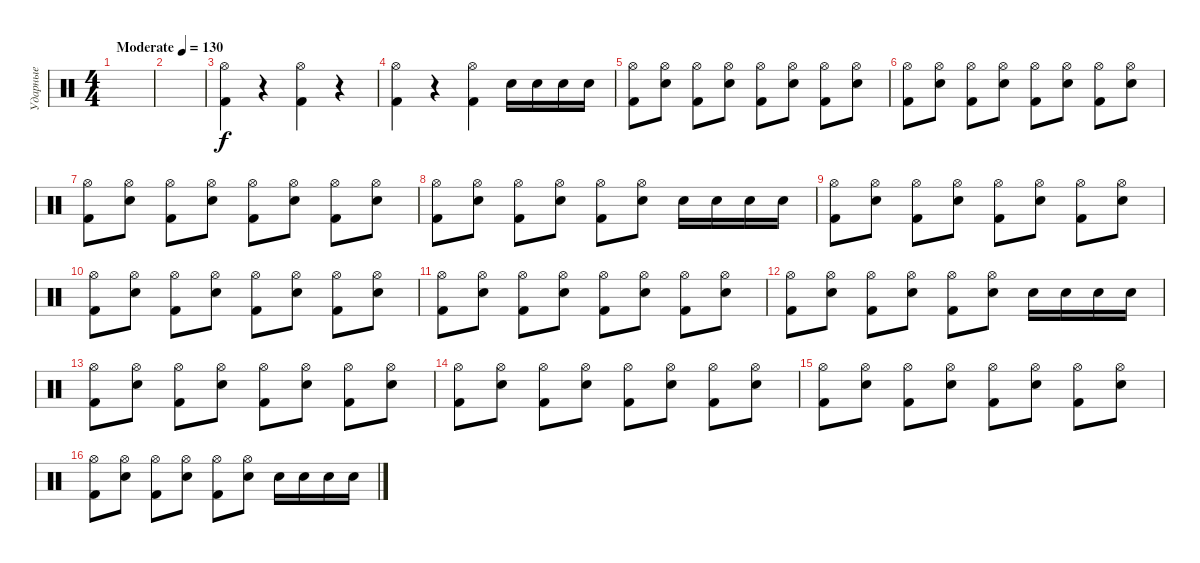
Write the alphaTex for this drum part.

\track ("Ударные" "Ударные") {instrument percussion}
\staff {score}
\articulation defaults
\ts (4 4)
\tempo (130 "Moderate")
\clef neutral
\ks c
|
|
("Hi-Hat (open)" "Kick (hit) 2").4 r.4 ("Hi-Hat (open)" "Kick (hit) 2").4 r.4 |
("Hi-Hat (open)" "Kick (hit) 2").4 r.4 ("Hi-Hat (open)" "Kick (hit) 2").4 "Electric Snare (hit)".16 "Electric Snare (hit)".16 "Electric Snare (hit)".16 "Electric Snare (hit)".16 |
("Hi-Hat (open)" "Kick (hit) 2").8 ("Hi-Hat (open)" "Electric Snare (hit)").8 ("Hi-Hat (open)" "Kick (hit) 2").8 ("Hi-Hat (open)" "Electric Snare (hit)").8 ("Hi-Hat (open)" "Kick (hit) 2").8 ("Hi-Hat (open)" "Electric Snare (hit)").8 ("Hi-Hat (open)" "Kick (hit) 2").8 ("Hi-Hat (open)" "Electric Snare (hit)").8 |
("Hi-Hat (open)" "Kick (hit) 2").8 ("Hi-Hat (open)" "Electric Snare (hit)").8 ("Hi-Hat (open)" "Kick (hit) 2").8 ("Hi-Hat (open)" "Electric Snare (hit)").8 ("Hi-Hat (open)" "Kick (hit) 2").8 ("Hi-Hat (open)" "Electric Snare (hit)").8 ("Hi-Hat (open)" "Kick (hit) 2").8 ("Hi-Hat (open)" "Electric Snare (hit)").8 |
("Hi-Hat (open)" "Kick (hit) 2").8 ("Hi-Hat (open)" "Electric Snare (hit)").8 ("Hi-Hat (open)" "Kick (hit) 2").8 ("Hi-Hat (open)" "Electric Snare (hit)").8 ("Hi-Hat (open)" "Kick (hit) 2").8 ("Hi-Hat (open)" "Electric Snare (hit)").8 ("Hi-Hat (open)" "Kick (hit) 2").8 ("Hi-Hat (open)" "Electric Snare (hit)").8 |
("Hi-Hat (open)" "Kick (hit) 2").8 ("Hi-Hat (open)" "Electric Snare (hit)").8 ("Hi-Hat (open)" "Kick (hit) 2").8 ("Hi-Hat (open)" "Electric Snare (hit)").8 ("Hi-Hat (open)" "Kick (hit) 2").8 ("Hi-Hat (open)" "Electric Snare (hit)").8 "Electric Snare (hit)".16 "Electric Snare (hit)".16 "Electric Snare (hit)".16 "Electric Snare (hit)".16 |
("Hi-Hat (open)" "Kick (hit) 2").8 ("Hi-Hat (open)" "Electric Snare (hit)").8 ("Hi-Hat (open)" "Kick (hit) 2").8 ("Hi-Hat (open)" "Electric Snare (hit)").8 ("Hi-Hat (open)" "Kick (hit) 2").8 ("Hi-Hat (open)" "Electric Snare (hit)").8 ("Hi-Hat (open)" "Kick (hit) 2").8 ("Hi-Hat (open)" "Electric Snare (hit)").8 |
("Hi-Hat (open)" "Kick (hit) 2").8 ("Hi-Hat (open)" "Electric Snare (hit)").8 ("Hi-Hat (open)" "Kick (hit) 2").8 ("Hi-Hat (open)" "Electric Snare (hit)").8 ("Hi-Hat (open)" "Kick (hit) 2").8 ("Hi-Hat (open)" "Electric Snare (hit)").8 ("Hi-Hat (open)" "Kick (hit) 2").8 ("Hi-Hat (open)" "Electric Snare (hit)").8 |
("Hi-Hat (open)" "Kick (hit) 2").8 ("Hi-Hat (open)" "Electric Snare (hit)").8 ("Hi-Hat (open)" "Kick (hit) 2").8 ("Hi-Hat (open)" "Electric Snare (hit)").8 ("Hi-Hat (open)" "Kick (hit) 2").8 ("Hi-Hat (open)" "Electric Snare (hit)").8 ("Hi-Hat (open)" "Kick (hit) 2").8 ("Hi-Hat (open)" "Electric Snare (hit)").8 |
("Hi-Hat (open)" "Kick (hit) 2").8 ("Hi-Hat (open)" "Electric Snare (hit)").8 ("Hi-Hat (open)" "Kick (hit) 2").8 ("Hi-Hat (open)" "Electric Snare (hit)").8 ("Hi-Hat (open)" "Kick (hit) 2").8 ("Hi-Hat (open)" "Electric Snare (hit)").8 "Electric Snare (hit)".16 "Electric Snare (hit)".16 "Electric Snare (hit)".16 "Electric Snare (hit)".16 |
("Hi-Hat (open)" "Kick (hit) 2").8 ("Hi-Hat (open)" "Electric Snare (hit)").8 ("Hi-Hat (open)" "Kick (hit) 2").8 ("Hi-Hat (open)" "Electric Snare (hit)").8 ("Hi-Hat (open)" "Kick (hit) 2").8 ("Hi-Hat (open)" "Electric Snare (hit)").8 ("Hi-Hat (open)" "Kick (hit) 2").8 ("Hi-Hat (open)" "Electric Snare (hit)").8 |
("Hi-Hat (open)" "Kick (hit) 2").8 ("Hi-Hat (open)" "Electric Snare (hit)").8 ("Hi-Hat (open)" "Kick (hit) 2").8 ("Hi-Hat (open)" "Electric Snare (hit)").8 ("Hi-Hat (open)" "Kick (hit) 2").8 ("Hi-Hat (open)" "Electric Snare (hit)").8 ("Hi-Hat (open)" "Kick (hit) 2").8 ("Hi-Hat (open)" "Electric Snare (hit)").8 |
("Hi-Hat (open)" "Kick (hit) 2").8 ("Hi-Hat (open)" "Electric Snare (hit)").8 ("Hi-Hat (open)" "Kick (hit) 2").8 ("Hi-Hat (open)" "Electric Snare (hit)").8 ("Hi-Hat (open)" "Kick (hit) 2").8 ("Hi-Hat (open)" "Electric Snare (hit)").8 ("Hi-Hat (open)" "Kick (hit) 2").8 ("Hi-Hat (open)" "Electric Snare (hit)").8 |
("Hi-Hat (open)" "Kick (hit) 2").8 ("Hi-Hat (open)" "Electric Snare (hit)").8 ("Hi-Hat (open)" "Kick (hit) 2").8 ("Hi-Hat (open)" "Electric Snare (hit)").8 ("Hi-Hat (open)" "Kick (hit) 2").8 ("Hi-Hat (open)" "Electric Snare (hit)").8 "Electric Snare (hit)".16 "Electric Snare (hit)".16 "Electric Snare (hit)".16 "Electric Snare (hit)".16
